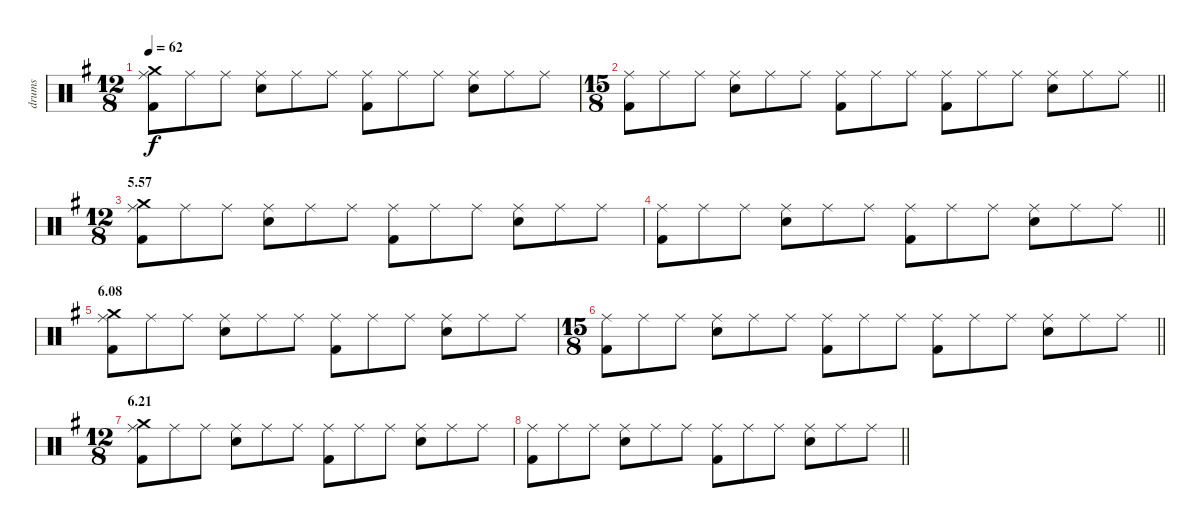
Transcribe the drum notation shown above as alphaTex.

\track ("drums" "drums") {instrument percussion}
\staff {score}
\articulation defaults
\ts (12 8)
\tempo 62
\clef neutral
\ks g
("Ride (middle)" "Crash medium (hit)" "Kick (hit) 2").8{dy f} "Ride (middle)".8 "Ride (middle)".8 ("Ride (middle)" "Electric Snare (hit)").8 "Ride (middle)".8 "Ride (middle)".8 ("Ride (middle)" "Kick (hit) 2").8 "Ride (middle)".8 "Ride (middle)".8 ("Ride (middle)" "Electric Snare (hit)").8 "Ride (middle)".8 "Ride (middle)".8 |
\ts (15 8)
\barLineRight lightlight
("Ride (middle)" "Kick (hit) 2").8 "Ride (middle)".8 "Ride (middle)".8 ("Ride (middle)" "Electric Snare (hit)").8 "Ride (middle)".8 "Ride (middle)".8 ("Ride (middle)" "Kick (hit) 2").8 "Ride (middle)".8 "Ride (middle)".8 ("Ride (middle)" "Kick (hit) 2").8 "Ride (middle)".8 "Ride (middle)".8 ("Ride (middle)" "Electric Snare (hit)").8 "Ride (middle)".8 "Ride (middle)".8 |
\ts (12 8)
\section ("" "5.57")
("Ride (middle)" "Crash medium (hit)" "Kick (hit) 2").8 "Ride (middle)".8 "Ride (middle)".8 ("Ride (middle)" "Electric Snare (hit)").8 "Ride (middle)".8 "Ride (middle)".8 ("Ride (middle)" "Kick (hit) 2").8 "Ride (middle)".8 "Ride (middle)".8 ("Ride (middle)" "Electric Snare (hit)").8 "Ride (middle)".8 "Ride (middle)".8 |
\barLineRight lightlight
("Ride (middle)" "Kick (hit) 2").8 "Ride (middle)".8 "Ride (middle)".8 ("Ride (middle)" "Electric Snare (hit)").8 "Ride (middle)".8 "Ride (middle)".8 ("Ride (middle)" "Kick (hit) 2").8 "Ride (middle)".8 "Ride (middle)".8 ("Ride (middle)" "Electric Snare (hit)").8 "Ride (middle)".8 "Ride (middle)".8 |
\section ("" "6.08")
("Ride (middle)" "Crash medium (hit)" "Kick (hit) 2").8 "Ride (middle)".8 "Ride (middle)".8 ("Ride (middle)" "Electric Snare (hit)").8 "Ride (middle)".8 "Ride (middle)".8 ("Ride (middle)" "Kick (hit) 2").8 "Ride (middle)".8 "Ride (middle)".8 ("Ride (middle)" "Electric Snare (hit)").8 "Ride (middle)".8 "Ride (middle)".8 |
\ts (15 8)
\barLineRight lightlight
("Ride (middle)" "Kick (hit) 2").8 "Ride (middle)".8 "Ride (middle)".8 ("Ride (middle)" "Electric Snare (hit)").8 "Ride (middle)".8 "Ride (middle)".8 ("Ride (middle)" "Kick (hit) 2").8 "Ride (middle)".8 "Ride (middle)".8 ("Ride (middle)" "Kick (hit) 2").8 "Ride (middle)".8 "Ride (middle)".8 ("Ride (middle)" "Electric Snare (hit)").8 "Ride (middle)".8 "Ride (middle)".8 |
\ts (12 8)
\section ("" "6.21")
("Ride (middle)" "Crash medium (hit)" "Kick (hit) 2").8 "Ride (middle)".8 "Ride (middle)".8 ("Ride (middle)" "Electric Snare (hit)").8 "Ride (middle)".8 "Ride (middle)".8 ("Ride (middle)" "Kick (hit) 2").8 "Ride (middle)".8 "Ride (middle)".8 ("Ride (middle)" "Electric Snare (hit)").8 "Ride (middle)".8 "Ride (middle)".8 |
\barLineRight lightlight
("Ride (middle)" "Kick (hit) 2").8 "Ride (middle)".8 "Ride (middle)".8 ("Ride (middle)" "Electric Snare (hit)").8 "Ride (middle)".8 "Ride (middle)".8 ("Ride (middle)" "Kick (hit) 2").8 "Ride (middle)".8 "Ride (middle)".8 ("Ride (middle)" "Electric Snare (hit)").8 "Ride (middle)".8 "Ride (middle)".8
